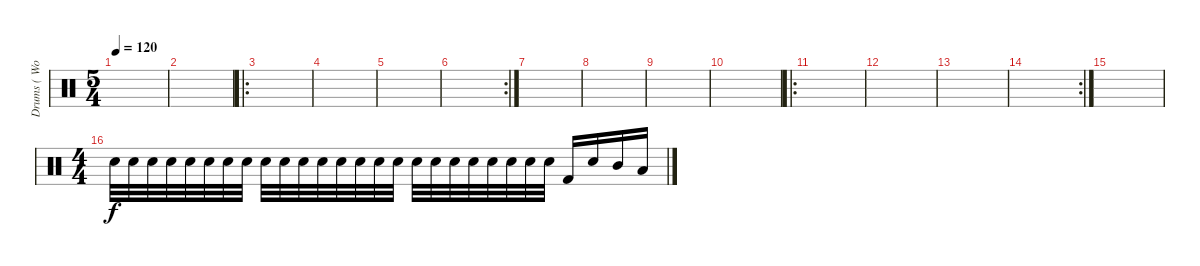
\track ("Drums ( Wolf Simons)" "Drums ( Wo") {instrument percussion}
\staff {score}
\articulation defaults
\ts (5 4)
\tempo 120
\clef neutral
\ks c
|
|
\ro
|
|
|
\rc 2
|
|
|
|
|
\ro
|
|
|
\rc 2
|
|
\ts (4 4)
"Snare (hit) 2".32 "Snare (hit) 2".32{volume 8} "Snare (hit) 2".32 "Snare (hit) 2".32{volume 9} "Snare (hit) 2".32 "Snare (hit) 2".32{volume 10} "Snare (hit) 2".32 "Snare (hit) 2".32{volume 11} "Snare (hit) 2".32 "Snare (hit) 2".32{volume 12} "Snare (hit) 2".32 "Snare (hit) 2".32{volume 13} "Snare (hit) 2".32 "Snare (hit) 2".32{volume 14} "Snare (hit) 2".32 "Snare (hit) 2".32{volume 15} "Snare (hit) 2".32 "Snare (hit) 2".32{volume 16} "Snare (hit) 2".32 "Snare (hit) 2".32 "Snare (hit) 2".32 "Snare (hit) 2".32 "Snare (hit) 2".32 "Snare (hit) 2".32 "Kick (hit) 2".16 "Electric Snare (hit)".16 "Mid Tom (hit)".16 "Low Tom (hit)".16
